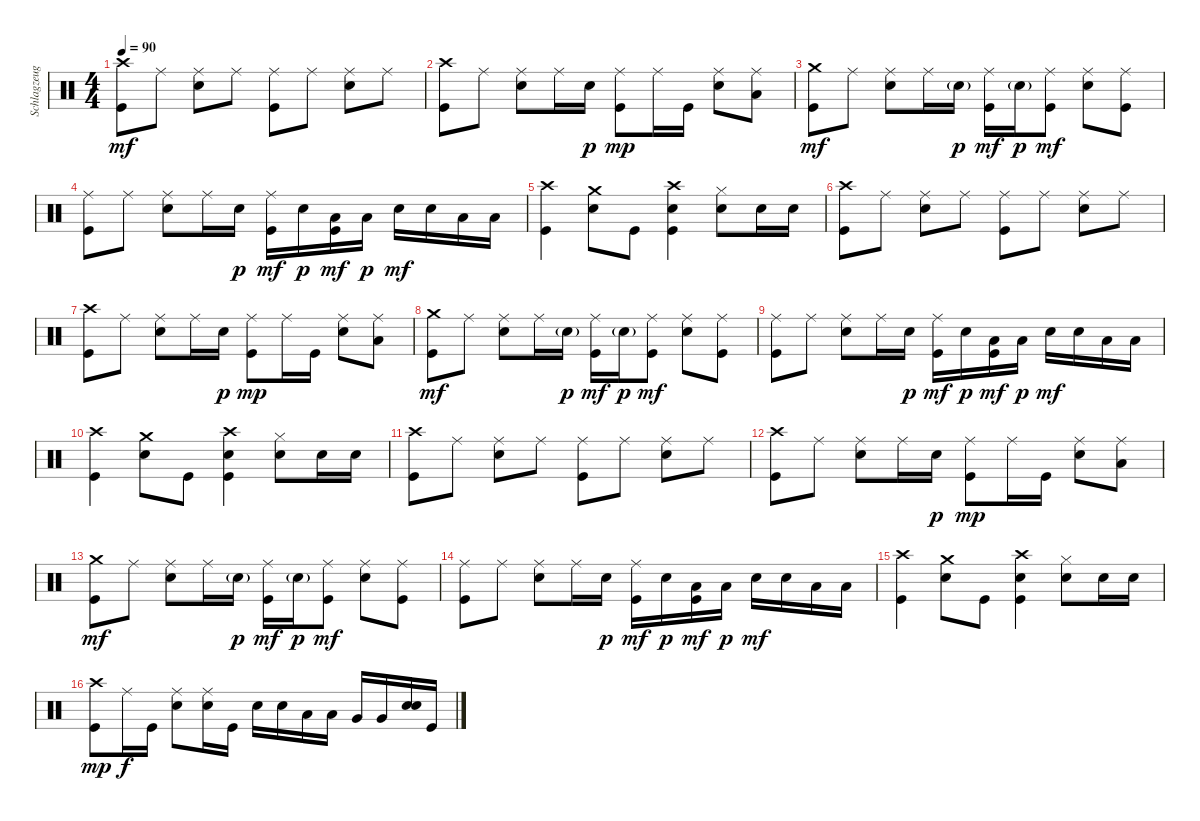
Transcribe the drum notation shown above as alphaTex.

\track ("Schlagzeug" "Schlagzeug") {instrument percussion}
\staff {score}
\articulation defaults
\ts (4 4)
\tempo 90
\clef neutral
\ks c
("Crash high (hit)" "Kick (hit)").8{dy mf} "Ride (middle)".8 ("Ride (middle)" "Snare (hit) 2").8 "Ride (middle)".8 ("Ride (middle)" "Kick (hit)").8 "Ride (middle)".8 ("Ride (middle)" "Snare (hit) 2").8 "Ride (middle)".8 |
("Crash high (hit)" "Kick (hit)").8 "Ride (middle)".8 ("Ride (middle)" "Snare (hit) 2").8 "Ride (middle)".16 "Snare (hit) 2".16{dy p} ("Ride (middle)" "Kick (hit)").8{dy mp} "Ride (middle)".16 "Kick (hit)".16 ("Ride (middle)" "Snare (hit) 2").8 ("Ride (middle)" "Low Tom (hit)").8 |
("Crash medium (hit)" "Kick (hit)").8{dy mf} "Ride (middle)".8 ("Ride (middle)" "Snare (hit) 2").8 "Ride (middle)".16 "Snare (hit) 2"{g}.16{dy p} ("Ride (middle)" "Kick (hit)").16{dy mf} "Snare (hit) 2"{g}.16{dy p} ("Ride (middle)" "Kick (hit)").8{dy mf} ("Ride (middle)" "Snare (hit) 2").8 ("Ride (middle)" "Kick (hit)").8 |
("Ride (middle)" "Kick (hit)").8 "Ride (middle)".8 ("Ride (middle)" "Snare (hit) 2").8 "Ride (middle)".16 "Snare (hit) 2".16{dy p} ("Ride (middle)" "Kick (hit)").16{dy mf} "Snare (hit) 2".16{dy p} ("Low Tom (hit)" "Kick (hit)").16{dy mf} "Low Tom (hit)".16{dy p} "Snare (hit) 2".16{dy mf} "Snare (hit) 2".16 "Low Tom (hit)".16 "Low Tom (hit)".16 |
("Crash high (hit)" "Kick (hit)").4 ("Crash medium (hit)" "Snare (hit) 2").8 "Kick (hit)".8 ("Crash high (hit)" "Snare (hit) 2" "Kick (hit)").4 ("Hi-Hat (closed)" "Snare (hit) 2").8 "Snare (hit) 2".16 "Snare (hit) 2".16 |
("Crash high (hit)" "Kick (hit)").8 "Ride (middle)".8 ("Ride (middle)" "Snare (hit) 2").8 "Ride (middle)".8 ("Ride (middle)" "Kick (hit)").8 "Ride (middle)".8 ("Ride (middle)" "Snare (hit) 2").8 "Ride (middle)".8 |
("Crash high (hit)" "Kick (hit)").8 "Ride (middle)".8 ("Ride (middle)" "Snare (hit) 2").8 "Ride (middle)".16 "Snare (hit) 2".16{dy p} ("Ride (middle)" "Kick (hit)").8{dy mp} "Ride (middle)".16 "Kick (hit)".16 ("Ride (middle)" "Snare (hit) 2").8 ("Ride (middle)" "Low Tom (hit)").8 |
("Crash medium (hit)" "Kick (hit)").8{dy mf} "Ride (middle)".8 ("Ride (middle)" "Snare (hit) 2").8 "Ride (middle)".16 "Snare (hit) 2"{g}.16{dy p} ("Ride (middle)" "Kick (hit)").16{dy mf} "Snare (hit) 2"{g}.16{dy p} ("Ride (middle)" "Kick (hit)").8{dy mf} ("Ride (middle)" "Snare (hit) 2").8 ("Ride (middle)" "Kick (hit)").8 |
("Ride (middle)" "Kick (hit)").8 "Ride (middle)".8 ("Ride (middle)" "Snare (hit) 2").8 "Ride (middle)".16 "Snare (hit) 2".16{dy p} ("Ride (middle)" "Kick (hit)").16{dy mf} "Snare (hit) 2".16{dy p} ("Low Tom (hit)" "Kick (hit)").16{dy mf} "Low Tom (hit)".16{dy p} "Snare (hit) 2".16{dy mf} "Snare (hit) 2".16 "Low Tom (hit)".16 "Low Tom (hit)".16 |
("Crash high (hit)" "Kick (hit)").4 ("Crash medium (hit)" "Snare (hit) 2").8 "Kick (hit)".8 ("Crash high (hit)" "Snare (hit) 2" "Kick (hit)").4 ("Hi-Hat (closed)" "Snare (hit) 2").8 "Snare (hit) 2".16 "Snare (hit) 2".16 |
("Crash high (hit)" "Kick (hit)").8 "Ride (middle)".8 ("Ride (middle)" "Snare (hit) 2").8 "Ride (middle)".8 ("Ride (middle)" "Kick (hit)").8 "Ride (middle)".8 ("Ride (middle)" "Snare (hit) 2").8 "Ride (middle)".8 |
("Crash high (hit)" "Kick (hit)").8 "Ride (middle)".8 ("Ride (middle)" "Snare (hit) 2").8 "Ride (middle)".16 "Snare (hit) 2".16{dy p} ("Ride (middle)" "Kick (hit)").8{dy mp} "Ride (middle)".16 "Kick (hit)".16 ("Ride (middle)" "Snare (hit) 2").8 ("Ride (middle)" "Low Tom (hit)").8 |
("Crash medium (hit)" "Kick (hit)").8{dy mf} "Ride (middle)".8 ("Ride (middle)" "Snare (hit) 2").8 "Ride (middle)".16 "Snare (hit) 2"{g}.16{dy p} ("Ride (middle)" "Kick (hit)").16{dy mf} "Snare (hit) 2"{g}.16{dy p} ("Ride (middle)" "Kick (hit)").8{dy mf} ("Ride (middle)" "Snare (hit) 2").8 ("Ride (middle)" "Kick (hit)").8 |
("Ride (middle)" "Kick (hit)").8 "Ride (middle)".8 ("Ride (middle)" "Snare (hit) 2").8 "Ride (middle)".16 "Snare (hit) 2".16{dy p} ("Ride (middle)" "Kick (hit)").16{dy mf} "Snare (hit) 2".16{dy p} ("Low Tom (hit)" "Kick (hit)").16{dy mf} "Low Tom (hit)".16{dy p} "Snare (hit) 2".16{dy mf} "Snare (hit) 2".16 "Low Tom (hit)".16 "Low Tom (hit)".16 |
("Crash high (hit)" "Kick (hit)").4 ("Crash medium (hit)" "Snare (hit) 2").8 "Kick (hit)".8 ("Crash high (hit)" "Snare (hit) 2" "Kick (hit)").4 ("Hi-Hat (closed)" "Snare (hit) 2").8 "Snare (hit) 2".16 "Snare (hit) 2".16 |
("Crash high (hit)" "Kick (hit)").8{dy mp} "Ride (middle)".16{dy f} "Kick (hit)".16 ("Ride (middle)" "Snare (hit) 2").8 ("Ride (middle)" "Snare (hit) 2").16 "Kick (hit)".16 "Snare (hit) 2".16 "Snare (hit) 2".16 "Low Tom (hit)".16 "Low Tom (hit)".16 "Very Low Tom (hit)".16 "Very Low Tom (hit)".16 ("Snare (hit) 2" "Snare (hit) 2").16 "Kick (hit)".16
